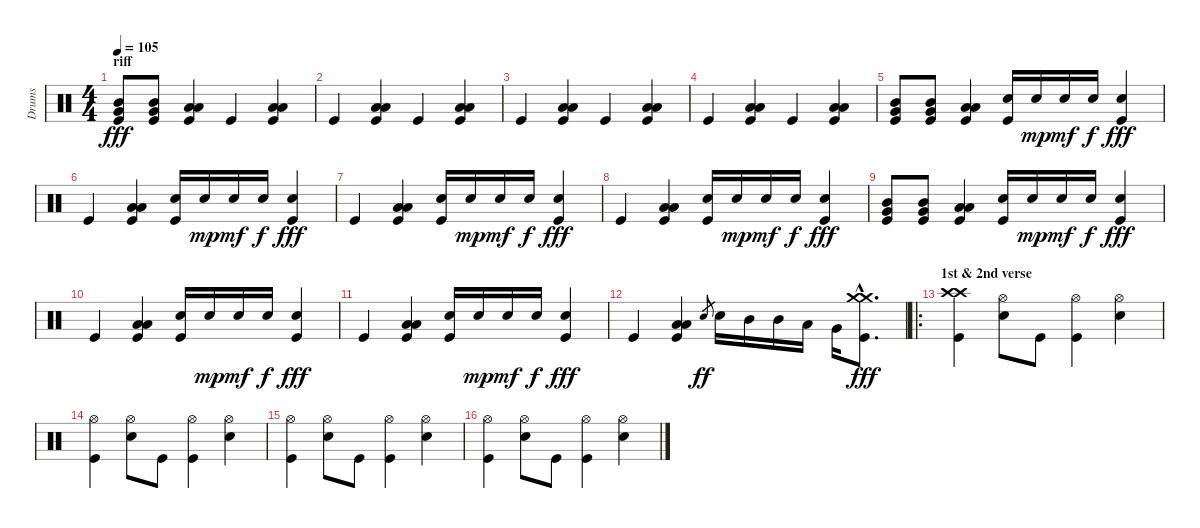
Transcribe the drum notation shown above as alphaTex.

\track ("Drums" "Drums") {instrument percussion}
\staff {score}
\articulation defaults
\ts (4 4)
\section ("" "riff")
\tempo 105
\clef neutral
\ks c
("Mid Tom (hit)" "Very Low Tom (hit)" "Kick (hit)").8{dy fff} ("Mid Tom (hit)" "Very Low Tom (hit)" "Kick (hit)").8 ("Low Tom (hit)" "Low Floor Tom (hit)" "Kick (hit)").4 "Kick (hit)".4 ("Low Tom (hit)" "Low Floor Tom (hit)" "Kick (hit)").4 |
"Kick (hit)".4 ("Low Tom (hit)" "Low Floor Tom (hit)" "Kick (hit)").4 "Kick (hit)".4 ("Low Tom (hit)" "Low Floor Tom (hit)" "Kick (hit)").4 |
"Kick (hit)".4 ("Low Tom (hit)" "Low Floor Tom (hit)" "Kick (hit)").4 "Kick (hit)".4 ("Low Tom (hit)" "Low Floor Tom (hit)" "Kick (hit)").4 |
"Kick (hit)".4 ("Low Tom (hit)" "Low Floor Tom (hit)" "Kick (hit)").4 "Kick (hit)".4 ("Low Tom (hit)" "Low Floor Tom (hit)" "Kick (hit)").4 |
("Mid Tom (hit)" "Very Low Tom (hit)" "Kick (hit)").8 ("Mid Tom (hit)" "Very Low Tom (hit)" "Kick (hit)").8 ("Low Tom (hit)" "Low Floor Tom (hit)" "Kick (hit)").4 ("Electric Snare (hit)" "Kick (hit)").16 "Electric Snare (hit)".16{dy mp} "Electric Snare (hit)".16{dy mf} "Electric Snare (hit)".16{dy f} ("Electric Snare (hit)" "Kick (hit)").4{dy fff} |
"Kick (hit)".4 ("Low Tom (hit)" "Low Floor Tom (hit)" "Kick (hit)").4 ("Electric Snare (hit)" "Kick (hit)").16 "Electric Snare (hit)".16{dy mp} "Electric Snare (hit)".16{dy mf} "Electric Snare (hit)".16{dy f} ("Electric Snare (hit)" "Kick (hit)").4{dy fff} |
"Kick (hit)".4 ("Low Tom (hit)" "Low Floor Tom (hit)" "Kick (hit)").4 ("Electric Snare (hit)" "Kick (hit)").16 "Electric Snare (hit)".16{dy mp} "Electric Snare (hit)".16{dy mf} "Electric Snare (hit)".16{dy f} ("Electric Snare (hit)" "Kick (hit)").4{dy fff} |
"Kick (hit)".4 ("Low Tom (hit)" "Low Floor Tom (hit)" "Kick (hit)").4 ("Electric Snare (hit)" "Kick (hit)").16 "Electric Snare (hit)".16{dy mp} "Electric Snare (hit)".16{dy mf} "Electric Snare (hit)".16{dy f} ("Electric Snare (hit)" "Kick (hit)").4{dy fff} |
("Mid Tom (hit)" "Very Low Tom (hit)" "Kick (hit)").8 ("Mid Tom (hit)" "Very Low Tom (hit)" "Kick (hit)").8 ("Low Tom (hit)" "Low Floor Tom (hit)" "Kick (hit)").4 ("Electric Snare (hit)" "Kick (hit)").16 "Electric Snare (hit)".16{dy mp} "Electric Snare (hit)".16{dy mf} "Electric Snare (hit)".16{dy f} ("Electric Snare (hit)" "Kick (hit)").4{dy fff} |
"Kick (hit)".4 ("Low Tom (hit)" "Low Floor Tom (hit)" "Kick (hit)").4 ("Electric Snare (hit)" "Kick (hit)").16 "Electric Snare (hit)".16{dy mp} "Electric Snare (hit)".16{dy mf} "Electric Snare (hit)".16{dy f} ("Electric Snare (hit)" "Kick (hit)").4{dy fff} |
"Kick (hit)".4 ("Low Tom (hit)" "Low Floor Tom (hit)" "Kick (hit)").4 ("Electric Snare (hit)" "Kick (hit)").16 "Electric Snare (hit)".16{dy mp} "Electric Snare (hit)".16{dy mf} "Electric Snare (hit)".16{dy f} ("Electric Snare (hit)" "Kick (hit)").4{dy fff} |
"Kick (hit)".4 ("Low Tom (hit)" "Low Floor Tom (hit)" "Kick (hit)").4 "Electric Snare (hit)".8{gr dy ff} "Electric Snare (hit)".16 "Mid Tom (hit)".16 "Mid Tom (hit)".16 "Low Tom (hit)".16 "Very Low Tom (hit)".16 ("Crash medium (hit)"{hac} "Crash medium (hit)"{hac} "Kick (hit)"{hac}).8{d dy fff} |
\ro
\section ("" "1st & 2nd verse")
("Crash high (hit)" "Crash high (hit)" "Kick (hit)").4 ("Electric Snare (hit)" "Hi-Hat (open)").8 "Kick (hit)".8 ("Hi-Hat (open)" "Kick (hit)").4 ("Electric Snare (hit)" "Hi-Hat (open)").4 |
("Hi-Hat (open)" "Kick (hit)").4 ("Electric Snare (hit)" "Hi-Hat (open)").8 "Kick (hit)".8 ("Hi-Hat (open)" "Kick (hit)").4 ("Electric Snare (hit)" "Hi-Hat (open)").4 |
("Hi-Hat (open)" "Kick (hit)").4 ("Electric Snare (hit)" "Hi-Hat (open)").8 "Kick (hit)".8 ("Hi-Hat (open)" "Kick (hit)").4 ("Electric Snare (hit)" "Hi-Hat (open)").4 |
("Hi-Hat (open)" "Kick (hit)").4 ("Electric Snare (hit)" "Hi-Hat (open)").8 "Kick (hit)".8 ("Hi-Hat (open)" "Kick (hit)").4 ("Electric Snare (hit)" "Hi-Hat (open)").4
